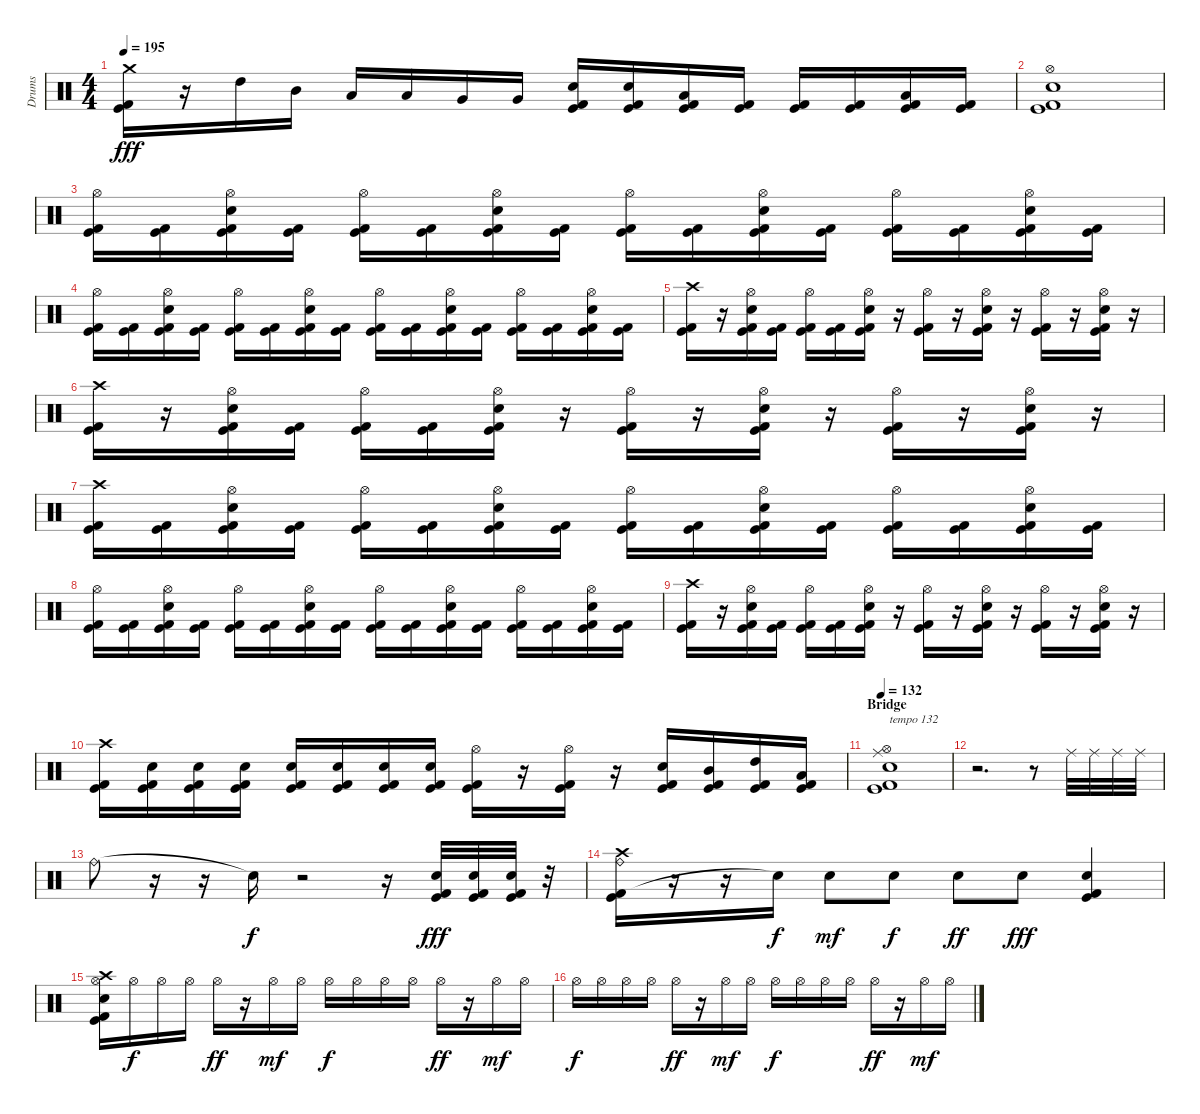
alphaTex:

\track ("Drums" "Drums") {instrument percussion}
\staff {score}
\articulation defaults
\ts (4 4)
\tempo 195
\clef neutral
\ks c
("Kick (hit) 2" "Kick (hit)" "Crash medium (hit)").16{dy fff} r.16 "High Tom (hit)".16 "Mid Tom (hit)".16 "Low Tom (hit)".16 "Low Tom (hit)".16 "Very Low Tom (hit)".16 "Very Low Tom (hit)".16 ("Kick (hit) 2" "Kick (hit)" "Snare (hit) 2").16 ("Kick (hit) 2" "Kick (hit)" "Snare (hit) 2").16 ("Kick (hit) 2" "Kick (hit)" "Low Tom (hit)").16 ("Kick (hit) 2" "Kick (hit)").16 ("Kick (hit) 2" "Kick (hit)").16 ("Kick (hit) 2" "Kick (hit)").16 ("Kick (hit) 2" "Kick (hit)" "Low Floor Tom (hit)").16 ("Kick (hit) 2" "Kick (hit)").16 |
("Kick (hit) 2" "Kick (hit)" "Snare (hit) 2" "Hi-Hat (open)").1 |
("Kick (hit) 2" "Kick (hit)" "Hi-Hat (open)").16 ("Kick (hit) 2" "Kick (hit)").16 ("Kick (hit) 2" "Kick (hit)" "Snare (hit) 2" "Hi-Hat (open)").16 ("Kick (hit) 2" "Kick (hit)").16 ("Kick (hit) 2" "Kick (hit)" "Hi-Hat (open)").16 ("Kick (hit) 2" "Kick (hit)").16 ("Kick (hit) 2" "Kick (hit)" "Snare (hit) 2" "Hi-Hat (open)").16 ("Kick (hit) 2" "Kick (hit)").16 ("Kick (hit) 2" "Kick (hit)" "Hi-Hat (open)").16 ("Kick (hit) 2" "Kick (hit)").16 ("Kick (hit) 2" "Kick (hit)" "Snare (hit) 2" "Hi-Hat (open)").16 ("Kick (hit) 2" "Kick (hit)").16 ("Kick (hit) 2" "Kick (hit)" "Hi-Hat (open)").16 ("Kick (hit) 2" "Kick (hit)").16 ("Kick (hit) 2" "Kick (hit)" "Snare (hit) 2" "Hi-Hat (open)").16 ("Kick (hit) 2" "Kick (hit)").16 |
("Kick (hit) 2" "Kick (hit)" "Hi-Hat (open)").16 ("Kick (hit) 2" "Kick (hit)").16 ("Kick (hit) 2" "Kick (hit)" "Snare (hit) 2" "Hi-Hat (open)").16 ("Kick (hit) 2" "Kick (hit)").16 ("Kick (hit) 2" "Kick (hit)" "Hi-Hat (open)").16 ("Kick (hit) 2" "Kick (hit)").16 ("Kick (hit) 2" "Kick (hit)" "Snare (hit) 2" "Hi-Hat (open)").16 ("Kick (hit) 2" "Kick (hit)").16 ("Kick (hit) 2" "Kick (hit)" "Hi-Hat (open)").16 ("Kick (hit) 2" "Kick (hit)").16 ("Kick (hit) 2" "Kick (hit)" "Snare (hit) 2" "Hi-Hat (open)").16 ("Kick (hit) 2" "Kick (hit)").16 ("Kick (hit) 2" "Kick (hit)" "Hi-Hat (open)").16 ("Kick (hit) 2" "Kick (hit)").16 ("Kick (hit) 2" "Kick (hit)" "Snare (hit) 2" "Hi-Hat (open)").16 ("Kick (hit) 2" "Kick (hit)").16 |
("Kick (hit) 2" "Kick (hit)" "Crash high (hit)").16 r.16 ("Kick (hit) 2" "Kick (hit)" "Snare (hit) 2" "Hi-Hat (open)").16 ("Kick (hit) 2" "Kick (hit)").16 ("Kick (hit) 2" "Kick (hit)" "Hi-Hat (open)").16 ("Kick (hit) 2" "Kick (hit)").16 ("Kick (hit) 2" "Kick (hit)" "Snare (hit) 2" "Hi-Hat (open)").16 r.16 ("Kick (hit) 2" "Kick (hit)" "Hi-Hat (open)").16 r.16 ("Kick (hit) 2" "Kick (hit)" "Snare (hit) 2" "Hi-Hat (open)").16 r.16 ("Kick (hit) 2" "Kick (hit)" "Hi-Hat (open)").16 r.16 ("Kick (hit) 2" "Kick (hit)" "Snare (hit) 2" "Hi-Hat (open)").16 r.16 |
("Kick (hit) 2" "Kick (hit)" "Crash high (hit)").16 r.16 ("Kick (hit) 2" "Kick (hit)" "Snare (hit) 2" "Hi-Hat (open)").16 ("Kick (hit) 2" "Kick (hit)").16 ("Kick (hit) 2" "Kick (hit)" "Hi-Hat (open)").16 ("Kick (hit) 2" "Kick (hit)").16 ("Kick (hit) 2" "Kick (hit)" "Snare (hit) 2" "Hi-Hat (open)").16 r.16 ("Kick (hit) 2" "Kick (hit)" "Hi-Hat (open)").16 r.16 ("Kick (hit) 2" "Kick (hit)" "Snare (hit) 2" "Hi-Hat (open)").16 r.16 ("Kick (hit) 2" "Kick (hit)" "Hi-Hat (open)").16 r.16 ("Kick (hit) 2" "Kick (hit)" "Snare (hit) 2" "Hi-Hat (open)").16 r.16 |
("Kick (hit) 2" "Kick (hit)" "Crash high (hit)").16 ("Kick (hit) 2" "Kick (hit)").16 ("Kick (hit) 2" "Kick (hit)" "Snare (hit) 2" "Hi-Hat (open)").16 ("Kick (hit) 2" "Kick (hit)").16 ("Kick (hit) 2" "Kick (hit)" "Hi-Hat (open)").16 ("Kick (hit) 2" "Kick (hit)").16 ("Kick (hit) 2" "Kick (hit)" "Snare (hit) 2" "Hi-Hat (open)").16 ("Kick (hit) 2" "Kick (hit)").16 ("Kick (hit) 2" "Kick (hit)" "Hi-Hat (open)").16 ("Kick (hit) 2" "Kick (hit)").16 ("Kick (hit) 2" "Kick (hit)" "Snare (hit) 2" "Hi-Hat (open)").16 ("Kick (hit) 2" "Kick (hit)").16 ("Kick (hit) 2" "Kick (hit)" "Hi-Hat (open)").16 ("Kick (hit) 2" "Kick (hit)").16 ("Kick (hit) 2" "Kick (hit)" "Snare (hit) 2" "Hi-Hat (open)").16 ("Kick (hit) 2" "Kick (hit)").16 |
("Kick (hit) 2" "Kick (hit)" "Hi-Hat (open)").16 ("Kick (hit) 2" "Kick (hit)").16 ("Kick (hit) 2" "Kick (hit)" "Snare (hit) 2" "Hi-Hat (open)").16 ("Kick (hit) 2" "Kick (hit)").16 ("Kick (hit) 2" "Kick (hit)" "Hi-Hat (open)").16 ("Kick (hit) 2" "Kick (hit)").16 ("Kick (hit) 2" "Kick (hit)" "Snare (hit) 2" "Hi-Hat (open)").16 ("Kick (hit) 2" "Kick (hit)").16 ("Kick (hit) 2" "Kick (hit)" "Hi-Hat (open)").16 ("Kick (hit) 2" "Kick (hit)").16 ("Kick (hit) 2" "Kick (hit)" "Snare (hit) 2" "Hi-Hat (open)").16 ("Kick (hit) 2" "Kick (hit)").16 ("Kick (hit) 2" "Kick (hit)" "Hi-Hat (open)").16 ("Kick (hit) 2" "Kick (hit)").16 ("Kick (hit) 2" "Kick (hit)" "Snare (hit) 2" "Hi-Hat (open)").16 ("Kick (hit) 2" "Kick (hit)").16 |
("Kick (hit) 2" "Kick (hit)" "Crash high (hit)").16 r.16 ("Kick (hit) 2" "Kick (hit)" "Snare (hit) 2" "Hi-Hat (open)").16 ("Kick (hit) 2" "Kick (hit)").16 ("Kick (hit) 2" "Kick (hit)" "Hi-Hat (open)").16 ("Kick (hit) 2" "Kick (hit)").16 ("Kick (hit) 2" "Kick (hit)" "Snare (hit) 2" "Hi-Hat (open)").16 r.16 ("Kick (hit) 2" "Kick (hit)" "Hi-Hat (open)").16 r.16 ("Kick (hit) 2" "Kick (hit)" "Snare (hit) 2" "Hi-Hat (open)").16 r.16 ("Kick (hit) 2" "Kick (hit)" "Hi-Hat (open)").16 r.16 ("Kick (hit) 2" "Kick (hit)" "Snare (hit) 2" "Hi-Hat (open)").16 r.16 |
("Kick (hit) 2" "Kick (hit)" "Crash high (hit)").16 ("Kick (hit) 2" "Kick (hit)" "Snare (hit) 2").16 ("Kick (hit) 2" "Kick (hit)" "Snare (hit) 2").16 ("Kick (hit) 2" "Kick (hit)" "Snare (hit) 2").16 ("Kick (hit) 2" "Kick (hit)" "Snare (hit) 2").16 ("Kick (hit) 2" "Kick (hit)" "Snare (hit) 2").16 ("Kick (hit) 2" "Kick (hit)" "Snare (hit) 2").16 ("Kick (hit) 2" "Kick (hit)" "Snare (hit) 2").16 ("Kick (hit) 2" "Kick (hit)" "Hi-Hat (open)").16 r.16 ("Kick (hit) 2" "Kick (hit)" "Hi-Hat (open)").16 r.16 ("Kick (hit) 2" "Kick (hit)" "Electric Snare (hit)").16 ("Kick (hit) 2" "Kick (hit)" "Mid Tom (hit)").16 ("Kick (hit) 2" "Kick (hit)" "High Tom (hit)").16 ("Kick (hit) 2" "Kick (hit)" "Low Floor Tom (hit)").16 |
\section ("" "Bridge")
\tempo 132
("Kick (hit) 2" "Kick (hit)" "Snare (hit) 2" "Ride (middle)" "Hi-Hat (open)").1{txt "tempo 132"} |
r.2{d} r.8 "Ride (middle)".32 "Ride (middle)".32 "Ride (middle)".32 "Ride (middle)".32 |
"Ride (bell)".8 r.16 r.16 "Snare (hit)"{t}.16{dy f} r.2 r.16 ("Kick (hit) 2" "Kick (hit)" "Snare (hit) 2").32{dy fff} ("Kick (hit) 2" "Kick (hit)" "Snare (hit) 2").32 ("Kick (hit) 2" "Kick (hit)" "Snare (hit) 2").32 r.32 |
("Kick (hit) 2" "Kick (hit)" "Crash high (hit)" "Ride (bell)").16 r.16 r.16 "Snare (hit)"{t}.16{dy f} "Snare (hit) 2".8{dy mf} "Electric Snare (hit)".8{dy f} "Snare (hit) 2".8{dy ff} "Electric Snare (hit)".8{dy fff} ("Kick (hit) 2" "Kick (hit)" "Snare (hit) 2").4 |
("Kick (hit) 2" "Kick (hit)" "Snare (hit) 2" "Crash high (hit)" "Hi-Hat (open)").16 "Hi-Hat (open)".16{dy f} "Hi-Hat (open)".16 "Hi-Hat (open)".16 "Hi-Hat (open)".16{dy ff} r.16 "Hi-Hat (open)".16{dy mf} "Hi-Hat (open)".16 "Hi-Hat (open)".16{dy f} "Hi-Hat (open)".16 "Hi-Hat (open)".16 "Hi-Hat (open)".16 "Hi-Hat (open)".16{dy ff} r.16 "Hi-Hat (open)".16{dy mf} "Hi-Hat (open)".16 |
"Hi-Hat (open)".16{dy f} "Hi-Hat (open)".16 "Hi-Hat (open)".16 "Hi-Hat (open)".16 "Hi-Hat (open)".16{dy ff} r.16 "Hi-Hat (open)".16{dy mf} "Hi-Hat (open)".16 "Hi-Hat (open)".16{dy f} "Hi-Hat (open)".16 "Hi-Hat (open)".16 "Hi-Hat (open)".16 "Hi-Hat (open)".16{dy ff} r.16 "Hi-Hat (open)".16{dy mf} "Hi-Hat (open)".16
